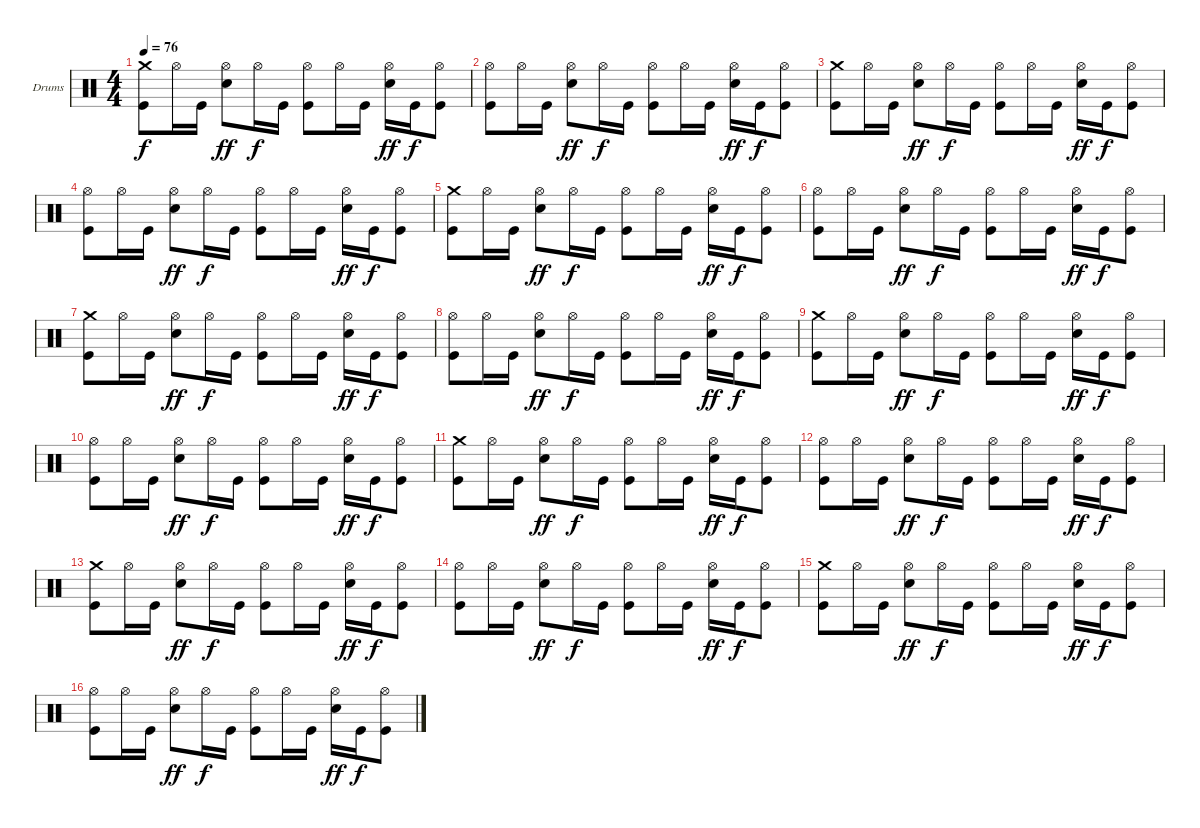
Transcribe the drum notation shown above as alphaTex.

\defaultSystemsLayout 4
\bracketExtendMode nobrackets
\firstSystemTrackNameOrientation horizontal
\otherSystemsTrackNameOrientation horizontal
\track ("Dave Krusen" "Drums") {instrument percussion}
\staff {score}
\articulation defaults
\ts (4 4)
\tempo 76
\clef neutral
\ks c
("Crash medium (hit)" "Kick (hit)").8{dy f} "Hi-Hat (open)".16 "Kick (hit)".16 ("Snare (hit) 2" "Hi-Hat (open)").8{dy ff} "Hi-Hat (open)".16{dy f} "Kick (hit)".16 ("Kick (hit)" "Hi-Hat (open)").8 "Hi-Hat (open)".16 "Kick (hit)".16 ("Snare (hit) 2" "Hi-Hat (open)").16{dy ff} "Kick (hit)".16{dy f} ("Kick (hit)" "Hi-Hat (open)").8 |
("Hi-Hat (open)" "Kick (hit)").8 "Hi-Hat (open)".16 "Kick (hit)".16 ("Snare (hit) 2" "Hi-Hat (open)").8{dy ff} "Hi-Hat (open)".16{dy f} "Kick (hit)".16 ("Kick (hit)" "Hi-Hat (open)").8 "Hi-Hat (open)".16 "Kick (hit)".16 ("Snare (hit) 2" "Hi-Hat (open)").16{dy ff} "Kick (hit)".16{dy f} ("Kick (hit)" "Hi-Hat (open)").8 |
("Crash medium (hit)" "Kick (hit)").8 "Hi-Hat (open)".16 "Kick (hit)".16 ("Snare (hit) 2" "Hi-Hat (open)").8{dy ff} "Hi-Hat (open)".16{dy f} "Kick (hit)".16 ("Kick (hit)" "Hi-Hat (open)").8 "Hi-Hat (open)".16 "Kick (hit)".16 ("Snare (hit) 2" "Hi-Hat (open)").16{dy ff} "Kick (hit)".16{dy f} ("Kick (hit)" "Hi-Hat (open)").8 |
("Hi-Hat (open)" "Kick (hit)").8 "Hi-Hat (open)".16 "Kick (hit)".16 ("Snare (hit) 2" "Hi-Hat (open)").8{dy ff} "Hi-Hat (open)".16{dy f} "Kick (hit)".16 ("Kick (hit)" "Hi-Hat (open)").8 "Hi-Hat (open)".16 "Kick (hit)".16 ("Snare (hit) 2" "Hi-Hat (open)").16{dy ff} "Kick (hit)".16{dy f} ("Kick (hit)" "Hi-Hat (open)").8 |
("Crash medium (hit)" "Kick (hit)").8 "Hi-Hat (open)".16 "Kick (hit)".16 ("Snare (hit) 2" "Hi-Hat (open)").8{dy ff} "Hi-Hat (open)".16{dy f} "Kick (hit)".16 ("Kick (hit)" "Hi-Hat (open)").8 "Hi-Hat (open)".16 "Kick (hit)".16 ("Snare (hit) 2" "Hi-Hat (open)").16{dy ff} "Kick (hit)".16{dy f} ("Kick (hit)" "Hi-Hat (open)").8 |
("Hi-Hat (open)" "Kick (hit)").8 "Hi-Hat (open)".16 "Kick (hit)".16 ("Snare (hit) 2" "Hi-Hat (open)").8{dy ff} "Hi-Hat (open)".16{dy f} "Kick (hit)".16 ("Kick (hit)" "Hi-Hat (open)").8 "Hi-Hat (open)".16 "Kick (hit)".16 ("Snare (hit) 2" "Hi-Hat (open)").16{dy ff} "Kick (hit)".16{dy f} ("Kick (hit)" "Hi-Hat (open)").8 |
("Crash medium (hit)" "Kick (hit)").8 "Hi-Hat (open)".16 "Kick (hit)".16 ("Snare (hit) 2" "Hi-Hat (open)").8{dy ff} "Hi-Hat (open)".16{dy f} "Kick (hit)".16 ("Kick (hit)" "Hi-Hat (open)").8 "Hi-Hat (open)".16 "Kick (hit)".16 ("Snare (hit) 2" "Hi-Hat (open)").16{dy ff} "Kick (hit)".16{dy f} ("Kick (hit)" "Hi-Hat (open)").8 |
("Hi-Hat (open)" "Kick (hit)").8 "Hi-Hat (open)".16 "Kick (hit)".16 ("Snare (hit) 2" "Hi-Hat (open)").8{dy ff} "Hi-Hat (open)".16{dy f} "Kick (hit)".16 ("Kick (hit)" "Hi-Hat (open)").8 "Hi-Hat (open)".16 "Kick (hit)".16 ("Snare (hit) 2" "Hi-Hat (open)").16{dy ff} "Kick (hit)".16{dy f} ("Kick (hit)" "Hi-Hat (open)").8 |
("Crash medium (hit)" "Kick (hit)").8 "Hi-Hat (open)".16 "Kick (hit)".16 ("Snare (hit) 2" "Hi-Hat (open)").8{dy ff} "Hi-Hat (open)".16{dy f} "Kick (hit)".16 ("Kick (hit)" "Hi-Hat (open)").8 "Hi-Hat (open)".16 "Kick (hit)".16 ("Snare (hit) 2" "Hi-Hat (open)").16{dy ff} "Kick (hit)".16{dy f} ("Kick (hit)" "Hi-Hat (open)").8 |
("Hi-Hat (open)" "Kick (hit)").8 "Hi-Hat (open)".16 "Kick (hit)".16 ("Snare (hit) 2" "Hi-Hat (open)").8{dy ff} "Hi-Hat (open)".16{dy f} "Kick (hit)".16 ("Kick (hit)" "Hi-Hat (open)").8 "Hi-Hat (open)".16 "Kick (hit)".16 ("Snare (hit) 2" "Hi-Hat (open)").16{dy ff} "Kick (hit)".16{dy f} ("Kick (hit)" "Hi-Hat (open)").8 |
("Crash medium (hit)" "Kick (hit)").8 "Hi-Hat (open)".16 "Kick (hit)".16 ("Snare (hit) 2" "Hi-Hat (open)").8{dy ff} "Hi-Hat (open)".16{dy f} "Kick (hit)".16 ("Kick (hit)" "Hi-Hat (open)").8 "Hi-Hat (open)".16 "Kick (hit)".16 ("Snare (hit) 2" "Hi-Hat (open)").16{dy ff} "Kick (hit)".16{dy f} ("Kick (hit)" "Hi-Hat (open)").8 |
("Hi-Hat (open)" "Kick (hit)").8 "Hi-Hat (open)".16 "Kick (hit)".16 ("Snare (hit) 2" "Hi-Hat (open)").8{dy ff} "Hi-Hat (open)".16{dy f} "Kick (hit)".16 ("Kick (hit)" "Hi-Hat (open)").8 "Hi-Hat (open)".16 "Kick (hit)".16 ("Snare (hit) 2" "Hi-Hat (open)").16{dy ff} "Kick (hit)".16{dy f} ("Kick (hit)" "Hi-Hat (open)").8 |
("Crash medium (hit)" "Kick (hit)").8 "Hi-Hat (open)".16 "Kick (hit)".16 ("Snare (hit) 2" "Hi-Hat (open)").8{dy ff} "Hi-Hat (open)".16{dy f} "Kick (hit)".16 ("Kick (hit)" "Hi-Hat (open)").8 "Hi-Hat (open)".16 "Kick (hit)".16 ("Snare (hit) 2" "Hi-Hat (open)").16{dy ff} "Kick (hit)".16{dy f} ("Kick (hit)" "Hi-Hat (open)").8 |
("Hi-Hat (open)" "Kick (hit)").8 "Hi-Hat (open)".16 "Kick (hit)".16 ("Snare (hit) 2" "Hi-Hat (open)").8{dy ff} "Hi-Hat (open)".16{dy f} "Kick (hit)".16 ("Kick (hit)" "Hi-Hat (open)").8 "Hi-Hat (open)".16 "Kick (hit)".16 ("Snare (hit) 2" "Hi-Hat (open)").16{dy ff} "Kick (hit)".16{dy f} ("Kick (hit)" "Hi-Hat (open)").8 |
("Crash medium (hit)" "Kick (hit)").8 "Hi-Hat (open)".16 "Kick (hit)".16 ("Snare (hit) 2" "Hi-Hat (open)").8{dy ff} "Hi-Hat (open)".16{dy f} "Kick (hit)".16 ("Kick (hit)" "Hi-Hat (open)").8 "Hi-Hat (open)".16 "Kick (hit)".16 ("Snare (hit) 2" "Hi-Hat (open)").16{dy ff} "Kick (hit)".16{dy f} ("Kick (hit)" "Hi-Hat (open)").8 |
("Hi-Hat (open)" "Kick (hit)").8 "Hi-Hat (open)".16 "Kick (hit)".16 ("Snare (hit) 2" "Hi-Hat (open)").8{dy ff} "Hi-Hat (open)".16{dy f} "Kick (hit)".16 ("Kick (hit)" "Hi-Hat (open)").8 "Hi-Hat (open)".16 "Kick (hit)".16 ("Snare (hit) 2" "Hi-Hat (open)").16{dy ff} "Kick (hit)".16{dy f} ("Kick (hit)" "Hi-Hat (open)").8
